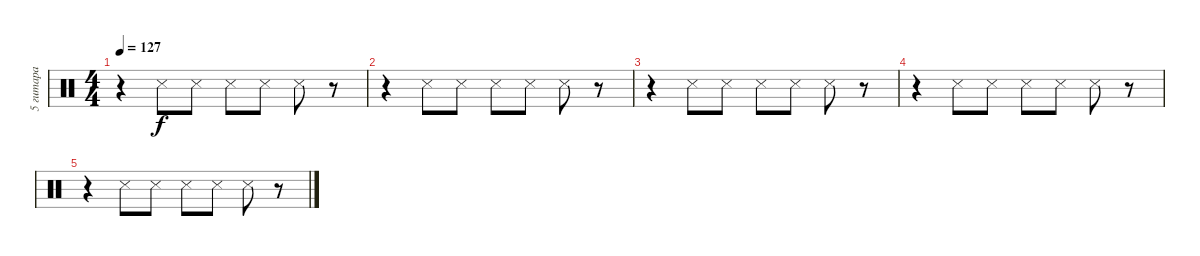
\track ("5 гитара" "5 гитара") {instrument percussion}
\staff {score}
\articulation defaults
\ts (4 4)
\tempo 127
\clef neutral
\ks c
r.4{dy f} "Snare (side stick) 3".8 "Snare (side stick) 3".8 "Snare (side stick) 3".8 "Snare (side stick) 3".8 "Snare (side stick) 3".8 r.8 |
r.4 "Snare (side stick) 3".8 "Snare (side stick) 3".8 "Snare (side stick) 3".8 "Snare (side stick) 3".8 "Snare (side stick) 3".8 r.8 |
r.4 "Snare (side stick) 3".8 "Snare (side stick) 3".8 "Snare (side stick) 3".8 "Snare (side stick) 3".8 "Snare (side stick) 3".8 r.8 |
r.4 "Snare (side stick) 3".8 "Snare (side stick) 3".8 "Snare (side stick) 3".8 "Snare (side stick) 3".8 "Snare (side stick) 3".8 r.8 |
r.4 "Snare (side stick) 3".8 "Snare (side stick) 3".8 "Snare (side stick) 3".8 "Snare (side stick) 3".8 "Snare (side stick) 3".8 r.8
